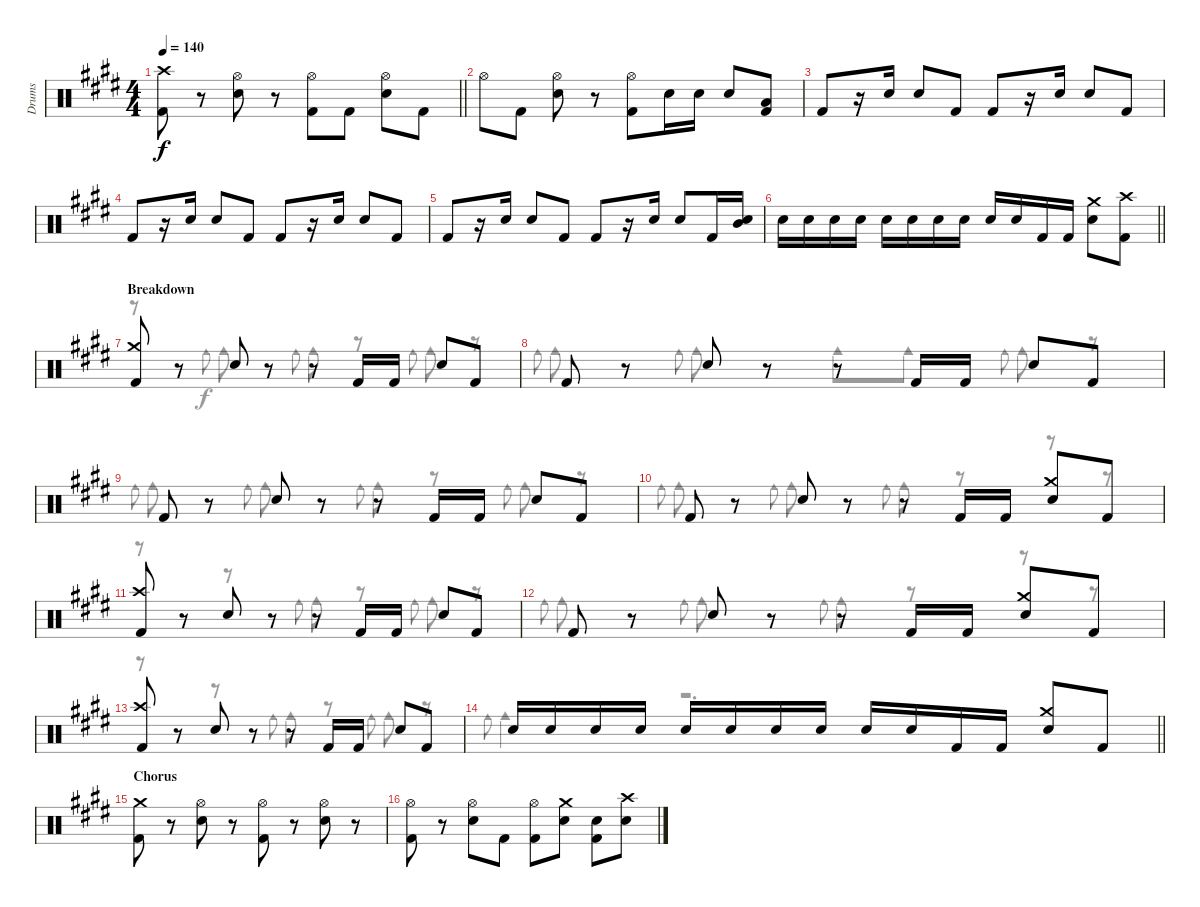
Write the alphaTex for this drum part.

\track ("Drums" "Drums") {instrument percussion}
\staff {score}
\articulation defaults
\voice
\ts (4 4)
\tempo 140
\clef neutral
\barLineRight lightlight
\ks c#minor
("Crash high (hit)" "Kick (hit) 2").8{dy f} r.8 ("Hi-Hat (open)" "Electric Snare (hit)").8 r.8 ("Hi-Hat (open)" "Kick (hit) 2").8 "Kick (hit) 2".8 ("Hi-Hat (open)" "Electric Snare (hit)").8 "Kick (hit) 2".8 |
"Hi-Hat (open)".8 "Kick (hit) 2".8 ("Hi-Hat (open)" "Electric Snare (hit)").8 r.8 ("Hi-Hat (open)" "Kick (hit) 2").8 "Electric Snare (hit)".16 "Electric Snare (hit)".16 "Electric Snare (hit)".8 ("Low Tom (hit)" "Kick (hit) 2").8 |
"Kick (hit) 2".8 r.16 "Electric Snare (hit)".16 "Electric Snare (hit)".8 "Kick (hit) 2".8 "Kick (hit) 2".8 r.16 "Electric Snare (hit)".16 "Electric Snare (hit)".8 "Kick (hit) 2".8 |
"Kick (hit) 2".8 r.16 "Electric Snare (hit)".16 "Electric Snare (hit)".8 "Kick (hit) 2".8 "Kick (hit) 2".8 r.16 "Electric Snare (hit)".16 "Electric Snare (hit)".8 "Kick (hit) 2".8 |
"Kick (hit) 2".8 r.16 "Electric Snare (hit)".16 "Electric Snare (hit)".8 "Kick (hit) 2".8 "Kick (hit) 2".8 r.16 "Electric Snare (hit)".16 "Electric Snare (hit)".8 "Kick (hit) 2".16 ("Mid Tom (hit)" "Electric Snare (hit)").16 |
\barLineRight lightlight "Electric Snare (hit)".16 "Electric Snare (hit)".16 "Electric Snare (hit)".16 "Electric Snare (hit)".16 "Electric Snare (hit)".16 "Electric Snare (hit)".16 "Electric Snare (hit)".16 "Electric Snare (hit)".16 "Electric Snare (hit)".16 "Electric Snare (hit)".16 "Kick (hit) 2".16 "Kick (hit) 2".16
("Crash medium (hit)" "Electric Snare (hit)").8 ("Crash high (hit)" "Kick (hit) 2").8 |
\section ("" "Breakdown")
("Crash medium (hit)" "Kick (hit) 2").8 r.8 "Electric Snare (hit)".8 r.8 r.8 "Kick (hit) 2".16 "Kick (hit) 2".16 "Electric Snare (hit)".8 "Kick (hit) 2".8 |
"Kick (hit) 2".8 r.8 "Electric Snare (hit)".8 r.8 r.8 "Kick (hit) 2".16 "Kick (hit) 2".16 "Electric Snare (hit)".8 "Kick (hit) 2".8 |
"Kick (hit) 2".8 r.8 "Electric Snare (hit)".8 r.8 r.8 "Kick (hit) 2".16 "Kick (hit) 2".16 "Electric Snare (hit)".8 "Kick (hit) 2".8 |
"Kick (hit) 2".8 r.8 "Electric Snare (hit)".8 r.8 r.8 "Kick (hit) 2".16 "Kick (hit) 2".16 ("Crash medium (hit)" "Electric Snare (hit)").8 "Kick (hit) 2".8 |
("Crash high (hit)" "Kick (hit) 2").8 r.8 "Electric Snare (hit)".8 r.8 r.8 "Kick (hit) 2".16 "Kick (hit) 2".16 "Electric Snare (hit)".8 "Kick (hit) 2".8 |
"Kick (hit) 2".8 r.8 "Electric Snare (hit)".8 r.8 r.8 "Kick (hit) 2".16 "Kick (hit) 2".16 ("Crash medium (hit)" "Electric Snare (hit)").8 "Kick (hit) 2".8 |
("Crash high (hit)" "Kick (hit) 2").8 r.8 "Electric Snare (hit)".8 r.8 r.8 "Kick (hit) 2".16 "Kick (hit) 2".16 "Electric Snare (hit)".8 "Kick (hit) 2".8 |
\barLineRight lightlight "Electric Snare (hit)".16 "Electric Snare (hit)".16 "Electric Snare (hit)".16 "Electric Snare (hit)".16 "Electric Snare (hit)".16 "Electric Snare (hit)".16 "Electric Snare (hit)".16 "Electric Snare (hit)".16 "Electric Snare (hit)".16 "Electric Snare (hit)".16 "Kick (hit) 2".16 "Kick (hit) 2".16
("Crash medium (hit)" "Electric Snare (hit)").8 "Kick (hit) 2".8 |
\section ("" "Chorus")
("Crash medium (hit)" "Kick (hit) 2").8 r.8 ("Hi-Hat (open)" "Electric Snare (hit)").8 r.8 ("Hi-Hat (open)" "Kick (hit) 2").8 r.8 ("Hi-Hat (open)" "Electric Snare (hit)").8 r.8 |
\ks e
("Hi-Hat (open)" "Kick (hit) 2").8 r.8 ("Hi-Hat (open)" "Electric Snare (hit)").8 "Kick (hit) 2".8 ("Hi-Hat (open)" "Kick (hit) 2").8 ("Crash medium (hit)" "Electric Snare (hit)").8 ("Electric Snare (hit)" "Kick (hit) 2").8 ("Crash high (hit)" "Electric Snare (hit)").8
\voice
\clef neutral
\ottava regular
\simile none
\barLineRight lightlight
\ks c#minor
|
|
|
|
|
\barLineRight lightlight
|
r.8 r.8 "Cowbell medium (hit)".8{gr onbeat} "Cowbell medium (hit)".8 r.8 "Cowbell medium (hit)".8{gr onbeat} "Cowbell medium (hit)".8 r.8 "Cowbell medium (hit)".8{gr onbeat} "Cowbell medium (hit)".8 r.8 |
"Cowbell medium (hit)".8{gr onbeat} "Cowbell medium (hit)".8 r.8 "Cowbell medium (hit)".8{gr onbeat} "Cowbell medium (hit)".8 r.8 "Cowbell medium (hit)".8 "Cowbell medium (hit)".8 "Cowbell medium (hit)".8{gr onbeat} "Cowbell medium (hit)".8 r.8 |
"Cowbell medium (hit)".8{gr onbeat} "Cowbell medium (hit)".8 r.8 "Cowbell medium (hit)".8{gr onbeat} "Cowbell medium (hit)".8 r.8 "Cowbell medium (hit)".8{gr onbeat} "Cowbell medium (hit)".8 r.8 "Cowbell medium (hit)".8{gr onbeat} "Cowbell medium (hit)".8 r.8 |
"Cowbell medium (hit)".8{gr onbeat} "Cowbell medium (hit)".8 r.8 "Cowbell medium (hit)".8{gr onbeat} "Cowbell medium (hit)".8 r.8 "Cowbell medium (hit)".8{gr onbeat} "Cowbell medium (hit)".8 r.8 r.8 r.8 |
r.8 r.8 r.8 r.8 "Cowbell medium (hit)".8{gr onbeat} "Cowbell medium (hit)".8 r.8 "Cowbell medium (hit)".8{gr onbeat} "Cowbell medium (hit)".8 r.8 |
"Cowbell medium (hit)".8{gr onbeat} "Cowbell medium (hit)".8 r.8 "Cowbell medium (hit)".8{gr onbeat} "Cowbell medium (hit)".8 r.8 "Cowbell medium (hit)".8{gr onbeat} "Cowbell medium (hit)".8 r.8 r.8 r.8 |
r.8 r.8 r.8 r.8 "Cowbell medium (hit)".8{gr onbeat} "Cowbell medium (hit)".8 r.8 "Cowbell medium (hit)".8{gr onbeat} "Cowbell medium (hit)".8 r.8 |
\barLineRight lightlight "Cowbell medium (hit)".8{gr onbeat} "Cowbell medium (hit)".4
r.2{d} |
|
\ks e
